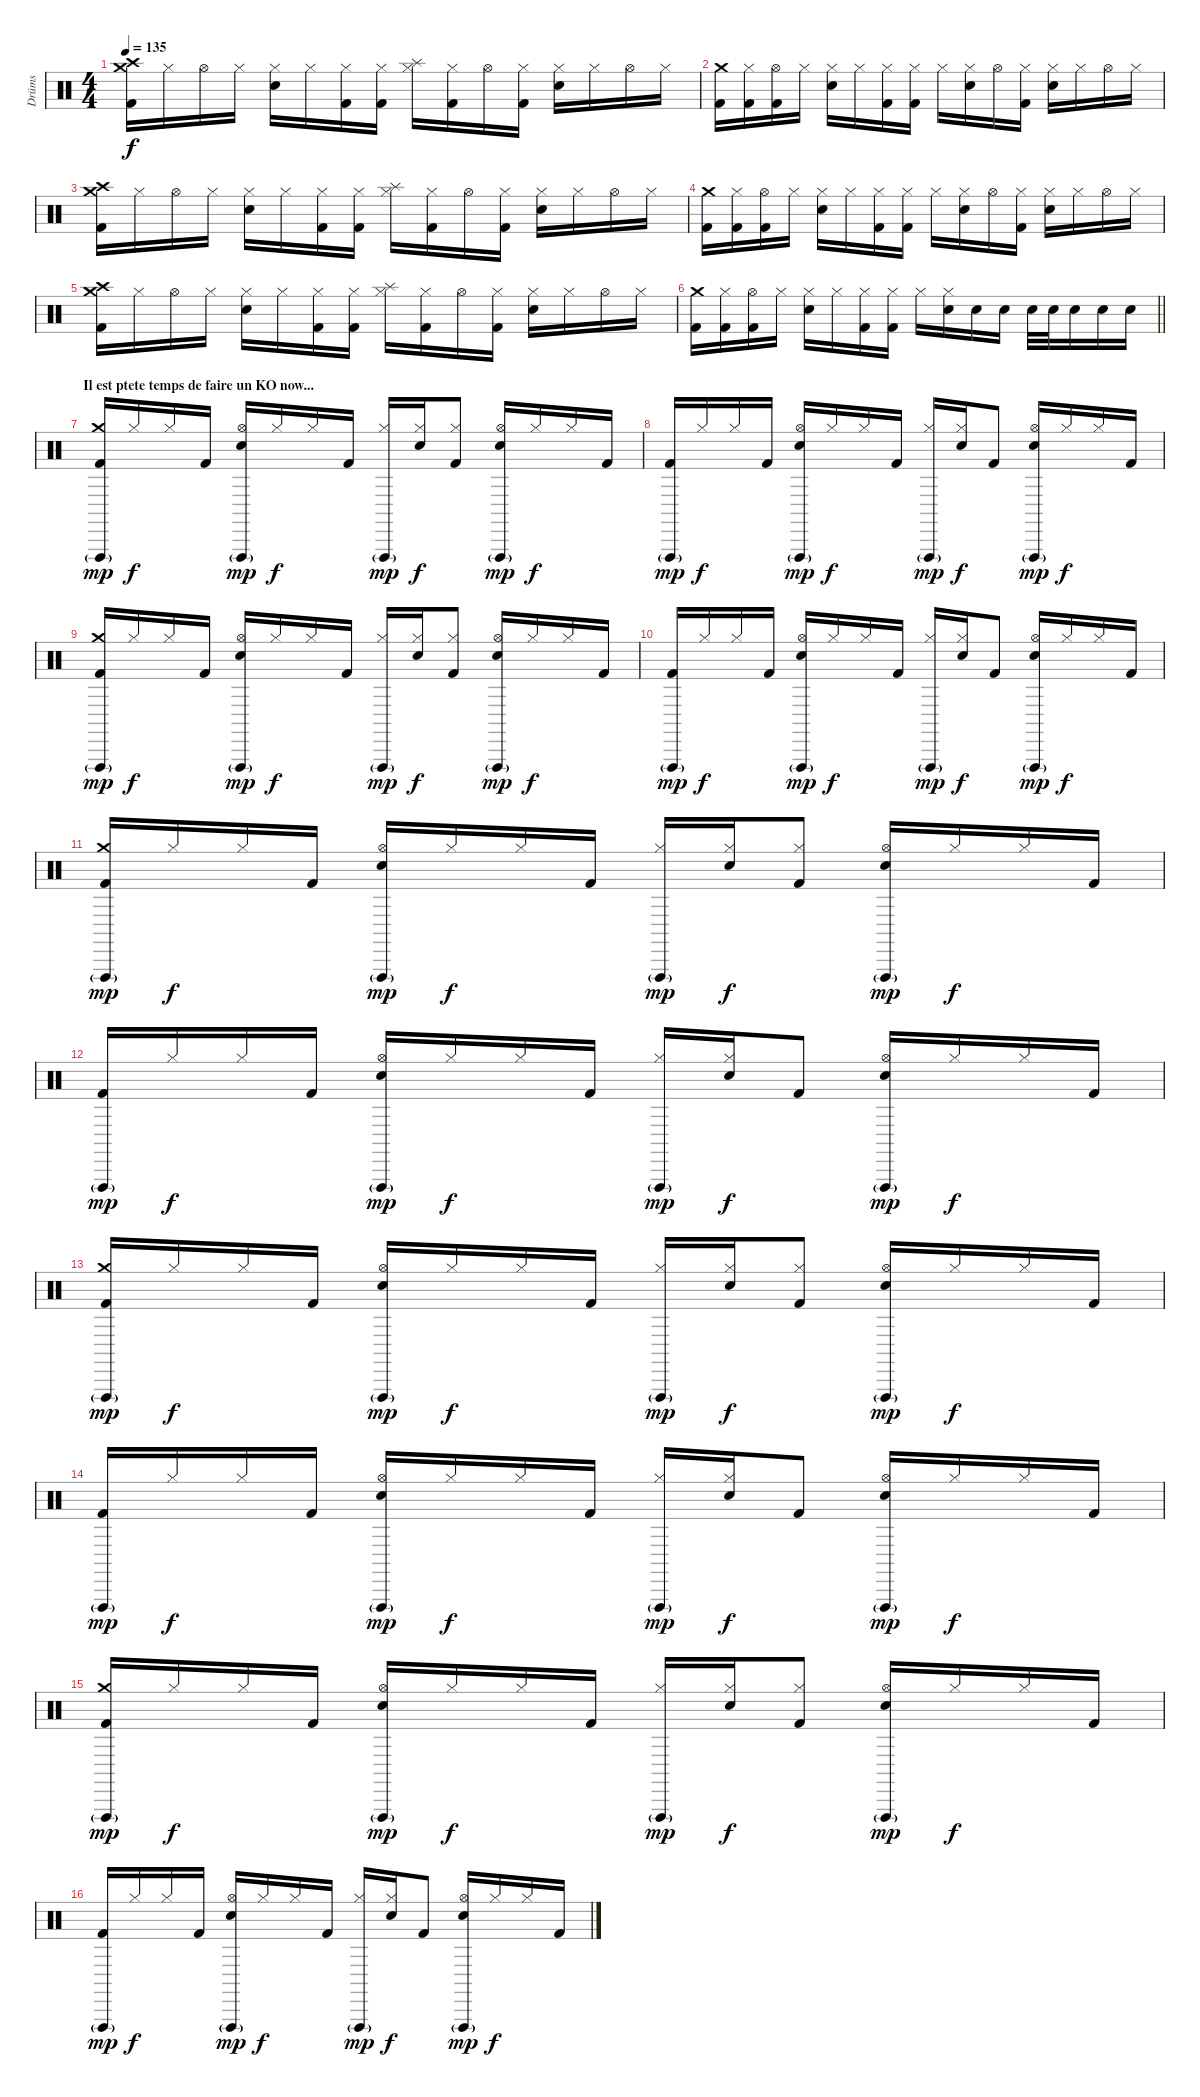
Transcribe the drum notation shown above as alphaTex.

\track ("Drüms" "Drüms") {instrument percussion}
\staff {score}
\articulation defaults
\ts (4 4)
\tempo 135
\clef neutral
\ks c
("Crash medium (hit)" "Crash high (hit)" "Kick (hit) 2").16{dy f} "Hi-Hat (closed)".16 "Hi-Hat (open)".16 "Hi-Hat (closed)".16 ("Hi-Hat (closed)" "Electric Snare (hit)").16 "Hi-Hat (closed)".16 ("Hi-Hat (closed)" "Kick (hit) 2").16 ("Hi-Hat (closed)" "Kick (hit) 2").16 ("Splash (hit)" "Hi-Hat (closed)").16 ("Hi-Hat (closed)" "Kick (hit) 2").16 "Hi-Hat (open)".16 ("Hi-Hat (closed)" "Kick (hit) 2").16 ("Hi-Hat (closed)" "Electric Snare (hit)").16 "Hi-Hat (closed)".16 "Hi-Hat (open)".16 "Hi-Hat (closed)".16 |
("Crash medium (hit)" "Kick (hit) 2").16 ("Hi-Hat (closed)" "Kick (hit) 2").16 ("Hi-Hat (open)" "Kick (hit) 2").16 "Hi-Hat (closed)".16 ("Hi-Hat (closed)" "Electric Snare (hit)").16 "Hi-Hat (closed)".16 ("Hi-Hat (closed)" "Kick (hit) 2").16 ("Hi-Hat (closed)" "Kick (hit) 2").16 "Hi-Hat (closed)".16 ("Hi-Hat (closed)" "Electric Snare (hit)").16 "Hi-Hat (open)".16 ("Hi-Hat (closed)" "Kick (hit) 2").16 ("Hi-Hat (closed)" "Electric Snare (hit)").16 "Hi-Hat (closed)".16 "Hi-Hat (open)".16 "Hi-Hat (closed)".16 |
("Crash medium (hit)" "Crash high (hit)" "Kick (hit) 2").16 "Hi-Hat (closed)".16 "Hi-Hat (open)".16 "Hi-Hat (closed)".16 ("Hi-Hat (closed)" "Electric Snare (hit)").16 "Hi-Hat (closed)".16 ("Hi-Hat (closed)" "Kick (hit) 2").16 ("Hi-Hat (closed)" "Kick (hit) 2").16 ("Splash (hit)" "Hi-Hat (closed)").16 ("Hi-Hat (closed)" "Kick (hit) 2").16 "Hi-Hat (open)".16 ("Hi-Hat (closed)" "Kick (hit) 2").16 ("Hi-Hat (closed)" "Electric Snare (hit)").16 "Hi-Hat (closed)".16 "Hi-Hat (open)".16 "Hi-Hat (closed)".16 |
("Crash medium (hit)" "Kick (hit) 2").16 ("Hi-Hat (closed)" "Kick (hit) 2").16 ("Hi-Hat (open)" "Kick (hit) 2").16 "Hi-Hat (closed)".16 ("Hi-Hat (closed)" "Electric Snare (hit)").16 "Hi-Hat (closed)".16 ("Hi-Hat (closed)" "Kick (hit) 2").16 ("Hi-Hat (closed)" "Kick (hit) 2").16 "Hi-Hat (closed)".16 ("Hi-Hat (closed)" "Electric Snare (hit)").16 "Hi-Hat (open)".16 ("Hi-Hat (closed)" "Kick (hit) 2").16 ("Hi-Hat (closed)" "Electric Snare (hit)").16 "Hi-Hat (closed)".16 "Hi-Hat (open)".16 "Hi-Hat (closed)".16 |
("Crash medium (hit)" "Crash high (hit)" "Kick (hit) 2").16 "Hi-Hat (closed)".16 "Hi-Hat (open)".16 "Hi-Hat (closed)".16 ("Hi-Hat (closed)" "Electric Snare (hit)").16 "Hi-Hat (closed)".16 ("Hi-Hat (closed)" "Kick (hit) 2").16 ("Hi-Hat (closed)" "Kick (hit) 2").16 ("Splash (hit)" "Hi-Hat (closed)").16 ("Hi-Hat (closed)" "Kick (hit) 2").16 "Hi-Hat (open)".16 ("Hi-Hat (closed)" "Kick (hit) 2").16 ("Hi-Hat (closed)" "Electric Snare (hit)").16 "Hi-Hat (closed)".16 "Hi-Hat (open)".16 "Hi-Hat (closed)".16 |
\barLineRight lightlight
("Crash medium (hit)" "Kick (hit) 2").16 ("Hi-Hat (closed)" "Kick (hit) 2").16 ("Hi-Hat (open)" "Kick (hit) 2").16 "Hi-Hat (closed)".16 ("Hi-Hat (closed)" "Electric Snare (hit)").16 "Hi-Hat (closed)".16 ("Hi-Hat (closed)" "Kick (hit) 2").16 ("Hi-Hat (closed)" "Kick (hit) 2").16 "Hi-Hat (closed)".16 ("Hi-Hat (closed)" "Electric Snare (hit)").16 "Electric Snare (hit)".16 "Electric Snare (hit)".16 "Electric Snare (hit)".32 "Electric Snare (hit)".32 "Electric Snare (hit)".16 "Electric Snare (hit)".16 "Electric Snare (hit)".16 |
\section ("" "Il est ptete temps de faire un KO now...")
("Crash medium (hit)" "Vibraslap (hit)"{g} "Kick (hit) 2").16{dy mp} "Hi-Hat (closed)".16{dy f} "Hi-Hat (closed)".16 "Kick (hit) 2".16 ("Vibraslap (hit)"{g} "Hi-Hat (open)" "Electric Snare (hit)").16{dy mp} "Hi-Hat (closed)".16{dy f} "Hi-Hat (closed)".16 "Kick (hit) 2".16 ("Vibraslap (hit)"{g} "Hi-Hat (closed)").16{dy mp} ("Hi-Hat (closed)" "Electric Snare (hit)").16{dy f} ("Hi-Hat (closed)" "Kick (hit) 2").8 ("Vibraslap (hit)"{g} "Hi-Hat (open)" "Electric Snare (hit)").16{dy mp} "Hi-Hat (closed)".16{dy f} "Hi-Hat (closed)".16 "Kick (hit) 2".16 |
("Vibraslap (hit)"{g} "Kick (hit) 2").16{dy mp} "Hi-Hat (closed)".16{dy f} "Hi-Hat (closed)".16 "Kick (hit) 2".16 ("Vibraslap (hit)"{g} "Hi-Hat (open)" "Electric Snare (hit)").16{dy mp} "Hi-Hat (closed)".16{dy f} "Hi-Hat (closed)".16 "Kick (hit) 2".16 ("Vibraslap (hit)"{g} "Hi-Hat (closed)").16{dy mp} ("Hi-Hat (closed)" "Electric Snare (hit)").16{dy f} "Kick (hit) 2".8 ("Vibraslap (hit)"{g} "Hi-Hat (open)" "Electric Snare (hit)").16{dy mp} "Hi-Hat (closed)".16{dy f} "Hi-Hat (closed)".16 "Kick (hit) 2".16 |
("Crash medium (hit)" "Vibraslap (hit)"{g} "Kick (hit) 2").16{dy mp} "Hi-Hat (closed)".16{dy f} "Hi-Hat (closed)".16 "Kick (hit) 2".16 ("Vibraslap (hit)"{g} "Hi-Hat (open)" "Electric Snare (hit)").16{dy mp} "Hi-Hat (closed)".16{dy f} "Hi-Hat (closed)".16 "Kick (hit) 2".16 ("Vibraslap (hit)"{g} "Hi-Hat (closed)").16{dy mp} ("Hi-Hat (closed)" "Electric Snare (hit)").16{dy f} ("Hi-Hat (closed)" "Kick (hit) 2").8 ("Vibraslap (hit)"{g} "Hi-Hat (open)" "Electric Snare (hit)").16{dy mp} "Hi-Hat (closed)".16{dy f} "Hi-Hat (closed)".16 "Kick (hit) 2".16 |
("Vibraslap (hit)"{g} "Kick (hit) 2").16{dy mp} "Hi-Hat (closed)".16{dy f} "Hi-Hat (closed)".16 "Kick (hit) 2".16 ("Vibraslap (hit)"{g} "Hi-Hat (open)" "Electric Snare (hit)").16{dy mp} "Hi-Hat (closed)".16{dy f} "Hi-Hat (closed)".16 "Kick (hit) 2".16 ("Vibraslap (hit)"{g} "Hi-Hat (closed)").16{dy mp} ("Hi-Hat (closed)" "Electric Snare (hit)").16{dy f} "Kick (hit) 2".8 ("Vibraslap (hit)"{g} "Hi-Hat (open)" "Electric Snare (hit)").16{dy mp} "Hi-Hat (closed)".16{dy f} "Hi-Hat (closed)".16 "Kick (hit) 2".16 |
("Crash medium (hit)" "Vibraslap (hit)"{g} "Kick (hit) 2").16{dy mp} "Hi-Hat (closed)".16{dy f} "Hi-Hat (closed)".16 "Kick (hit) 2".16 ("Vibraslap (hit)"{g} "Hi-Hat (open)" "Electric Snare (hit)").16{dy mp} "Hi-Hat (closed)".16{dy f} "Hi-Hat (closed)".16 "Kick (hit) 2".16 ("Vibraslap (hit)"{g} "Hi-Hat (closed)").16{dy mp} ("Hi-Hat (closed)" "Electric Snare (hit)").16{dy f} ("Hi-Hat (closed)" "Kick (hit) 2").8 ("Vibraslap (hit)"{g} "Hi-Hat (open)" "Electric Snare (hit)").16{dy mp} "Hi-Hat (closed)".16{dy f} "Hi-Hat (closed)".16 "Kick (hit) 2".16 |
("Vibraslap (hit)"{g} "Kick (hit) 2").16{dy mp} "Hi-Hat (closed)".16{dy f} "Hi-Hat (closed)".16 "Kick (hit) 2".16 ("Vibraslap (hit)"{g} "Hi-Hat (open)" "Electric Snare (hit)").16{dy mp} "Hi-Hat (closed)".16{dy f} "Hi-Hat (closed)".16 "Kick (hit) 2".16 ("Vibraslap (hit)"{g} "Hi-Hat (closed)").16{dy mp} ("Hi-Hat (closed)" "Electric Snare (hit)").16{dy f} "Kick (hit) 2".8 ("Vibraslap (hit)"{g} "Hi-Hat (open)" "Electric Snare (hit)").16{dy mp} "Hi-Hat (closed)".16{dy f} "Hi-Hat (closed)".16 "Kick (hit) 2".16 |
("Crash medium (hit)" "Vibraslap (hit)"{g} "Kick (hit) 2").16{dy mp} "Hi-Hat (closed)".16{dy f} "Hi-Hat (closed)".16 "Kick (hit) 2".16 ("Vibraslap (hit)"{g} "Hi-Hat (open)" "Electric Snare (hit)").16{dy mp} "Hi-Hat (closed)".16{dy f} "Hi-Hat (closed)".16 "Kick (hit) 2".16 ("Vibraslap (hit)"{g} "Hi-Hat (closed)").16{dy mp} ("Hi-Hat (closed)" "Electric Snare (hit)").16{dy f} ("Hi-Hat (closed)" "Kick (hit) 2").8 ("Vibraslap (hit)"{g} "Hi-Hat (open)" "Electric Snare (hit)").16{dy mp} "Hi-Hat (closed)".16{dy f} "Hi-Hat (closed)".16 "Kick (hit) 2".16 |
("Vibraslap (hit)"{g} "Kick (hit) 2").16{dy mp} "Hi-Hat (closed)".16{dy f} "Hi-Hat (closed)".16 "Kick (hit) 2".16 ("Vibraslap (hit)"{g} "Hi-Hat (open)" "Electric Snare (hit)").16{dy mp} "Hi-Hat (closed)".16{dy f} "Hi-Hat (closed)".16 "Kick (hit) 2".16 ("Vibraslap (hit)"{g} "Hi-Hat (closed)").16{dy mp} ("Hi-Hat (closed)" "Electric Snare (hit)").16{dy f} "Kick (hit) 2".8 ("Vibraslap (hit)"{g} "Hi-Hat (open)" "Electric Snare (hit)").16{dy mp} "Hi-Hat (closed)".16{dy f} "Hi-Hat (closed)".16 "Kick (hit) 2".16 |
("Crash medium (hit)" "Vibraslap (hit)"{g} "Kick (hit) 2").16{dy mp} "Hi-Hat (closed)".16{dy f} "Hi-Hat (closed)".16 "Kick (hit) 2".16 ("Vibraslap (hit)"{g} "Hi-Hat (open)" "Electric Snare (hit)").16{dy mp} "Hi-Hat (closed)".16{dy f} "Hi-Hat (closed)".16 "Kick (hit) 2".16 ("Vibraslap (hit)"{g} "Hi-Hat (closed)").16{dy mp} ("Hi-Hat (closed)" "Electric Snare (hit)").16{dy f} ("Hi-Hat (closed)" "Kick (hit) 2").8 ("Vibraslap (hit)"{g} "Hi-Hat (open)" "Electric Snare (hit)").16{dy mp} "Hi-Hat (closed)".16{dy f} "Hi-Hat (closed)".16 "Kick (hit) 2".16 |
("Vibraslap (hit)"{g} "Kick (hit) 2").16{dy mp} "Hi-Hat (closed)".16{dy f} "Hi-Hat (closed)".16 "Kick (hit) 2".16 ("Vibraslap (hit)"{g} "Hi-Hat (open)" "Electric Snare (hit)").16{dy mp} "Hi-Hat (closed)".16{dy f} "Hi-Hat (closed)".16 "Kick (hit) 2".16 ("Vibraslap (hit)"{g} "Hi-Hat (closed)").16{dy mp} ("Hi-Hat (closed)" "Electric Snare (hit)").16{dy f} "Kick (hit) 2".8 ("Vibraslap (hit)"{g} "Hi-Hat (open)" "Electric Snare (hit)").16{dy mp} "Hi-Hat (closed)".16{dy f} "Hi-Hat (closed)".16 "Kick (hit) 2".16
